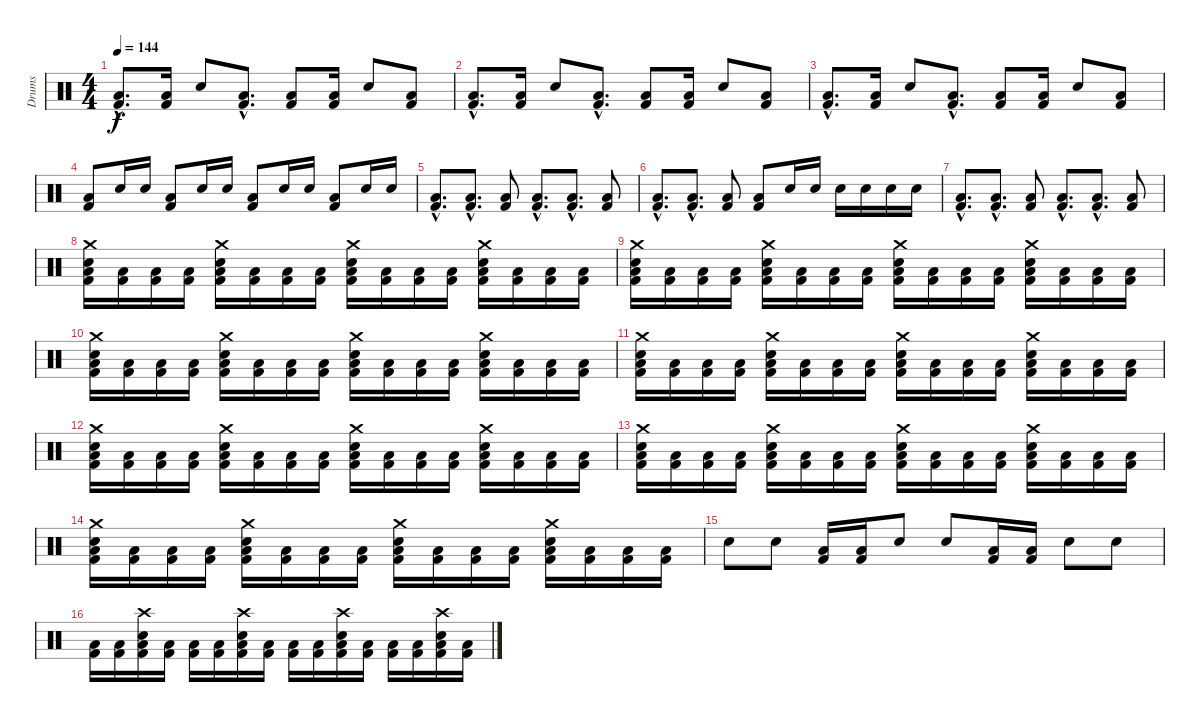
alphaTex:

\track ("Drums" "Drums") {instrument percussion}
\staff {score}
\articulation defaults
\ts (4 4)
\tempo 144
\clef neutral
\ks c
("Low Floor Tom (hit)"{hac} "Kick (hit) 2"{hac}).8{d dy f} ("Low Floor Tom (hit)" "Kick (hit) 2").16 "Snare (hit) 2".8 ("Low Floor Tom (hit)"{hac} "Kick (hit) 2"{hac}).8{d} ("Low Floor Tom (hit)" "Kick (hit) 2").8 ("Low Floor Tom (hit)" "Kick (hit) 2").16 "Snare (hit) 2".8 ("Low Floor Tom (hit)" "Kick (hit) 2").8 |
("Low Floor Tom (hit)"{hac} "Kick (hit) 2"{hac}).8{d} ("Low Floor Tom (hit)" "Kick (hit) 2").16 "Snare (hit) 2".8 ("Low Floor Tom (hit)"{hac} "Kick (hit) 2"{hac}).8{d} ("Low Floor Tom (hit)" "Kick (hit) 2").8 ("Low Floor Tom (hit)" "Kick (hit) 2").16 "Snare (hit) 2".8 ("Low Floor Tom (hit)" "Kick (hit) 2").8 |
("Low Floor Tom (hit)"{hac} "Kick (hit) 2"{hac}).8{d} ("Low Floor Tom (hit)" "Kick (hit) 2").16 "Snare (hit) 2".8 ("Low Floor Tom (hit)"{hac} "Kick (hit) 2"{hac}).8{d} ("Low Floor Tom (hit)" "Kick (hit) 2").8 ("Low Floor Tom (hit)" "Kick (hit) 2").16 "Snare (hit) 2".8 ("Low Floor Tom (hit)" "Kick (hit) 2").8 |
("Low Floor Tom (hit)" "Kick (hit) 2").8 "Snare (hit) 2".16 "Snare (hit) 2".16 ("Low Floor Tom (hit)" "Kick (hit) 2").8 "Snare (hit) 2".16 "Snare (hit) 2".16 ("Low Floor Tom (hit)" "Kick (hit) 2").8 "Snare (hit) 2".16 "Snare (hit) 2".16 ("Low Floor Tom (hit)" "Kick (hit) 2").8 "Snare (hit) 2".16 "Snare (hit) 2".16 |
("Low Floor Tom (hit)"{hac} "Kick (hit) 2"{hac}).8{d} ("Low Floor Tom (hit)"{hac} "Kick (hit) 2"{hac}).8{d} ("Low Floor Tom (hit)" "Kick (hit) 2").8 ("Low Floor Tom (hit)"{hac} "Kick (hit) 2"{hac}).8{d} ("Low Floor Tom (hit)"{hac} "Kick (hit) 2"{hac}).8{d} ("Low Floor Tom (hit)" "Kick (hit) 2").8 |
("Low Floor Tom (hit)"{hac} "Kick (hit) 2"{hac}).8{d} ("Low Floor Tom (hit)"{hac} "Kick (hit) 2"{hac}).8{d} ("Low Floor Tom (hit)" "Kick (hit) 2").8 ("Low Floor Tom (hit)" "Kick (hit) 2").8 "Snare (hit) 2".16 "Snare (hit) 2".16 "Snare (hit) 2".16 "Snare (hit) 2".16 "Snare (hit) 2".16 "Snare (hit) 2".16 |
("Low Floor Tom (hit)"{hac} "Kick (hit) 2"{hac}).8{d} ("Low Floor Tom (hit)"{hac} "Kick (hit) 2"{hac}).8{d} ("Low Floor Tom (hit)" "Kick (hit) 2").8 ("Low Floor Tom (hit)"{hac} "Kick (hit) 2"{hac}).8{d} ("Low Floor Tom (hit)"{hac} "Kick (hit) 2"{hac}).8{d} ("Low Floor Tom (hit)" "Kick (hit) 2").8 |
("Snare (hit) 2" "Crash medium (hit)" "Low Floor Tom (hit)" "Kick (hit) 2").16 ("Low Floor Tom (hit)" "Kick (hit) 2").16 ("Low Floor Tom (hit)" "Kick (hit) 2").16 ("Low Floor Tom (hit)" "Kick (hit) 2").16 ("Snare (hit) 2" "Crash medium (hit)" "Low Floor Tom (hit)" "Kick (hit) 2").16 ("Low Floor Tom (hit)" "Kick (hit) 2").16 ("Low Floor Tom (hit)" "Kick (hit) 2").16 ("Low Floor Tom (hit)" "Kick (hit) 2").16 ("Snare (hit) 2" "Crash medium (hit)" "Low Floor Tom (hit)" "Kick (hit) 2").16 ("Low Floor Tom (hit)" "Kick (hit) 2").16 ("Low Floor Tom (hit)" "Kick (hit) 2").16 ("Low Floor Tom (hit)" "Kick (hit) 2").16 ("Snare (hit) 2" "Crash medium (hit)" "Low Floor Tom (hit)" "Kick (hit) 2").16 ("Low Floor Tom (hit)" "Kick (hit) 2").16 ("Low Floor Tom (hit)" "Kick (hit) 2").16 ("Low Floor Tom (hit)" "Kick (hit) 2").16 |
("Snare (hit) 2" "Crash medium (hit)" "Low Floor Tom (hit)" "Kick (hit) 2").16 ("Low Floor Tom (hit)" "Kick (hit) 2").16 ("Low Floor Tom (hit)" "Kick (hit) 2").16 ("Low Floor Tom (hit)" "Kick (hit) 2").16 ("Snare (hit) 2" "Crash medium (hit)" "Low Floor Tom (hit)" "Kick (hit) 2").16 ("Low Floor Tom (hit)" "Kick (hit) 2").16 ("Low Floor Tom (hit)" "Kick (hit) 2").16 ("Low Floor Tom (hit)" "Kick (hit) 2").16 ("Snare (hit) 2" "Crash medium (hit)" "Low Floor Tom (hit)" "Kick (hit) 2").16 ("Low Floor Tom (hit)" "Kick (hit) 2").16 ("Low Floor Tom (hit)" "Kick (hit) 2").16 ("Low Floor Tom (hit)" "Kick (hit) 2").16 ("Snare (hit) 2" "Crash medium (hit)" "Low Floor Tom (hit)" "Kick (hit) 2").16 ("Low Floor Tom (hit)" "Kick (hit) 2").16 ("Low Floor Tom (hit)" "Kick (hit) 2").16 ("Low Floor Tom (hit)" "Kick (hit) 2").16 |
("Snare (hit) 2" "Crash medium (hit)" "Low Floor Tom (hit)" "Kick (hit) 2").16 ("Low Floor Tom (hit)" "Kick (hit) 2").16 ("Low Floor Tom (hit)" "Kick (hit) 2").16 ("Low Floor Tom (hit)" "Kick (hit) 2").16 ("Snare (hit) 2" "Crash medium (hit)" "Low Floor Tom (hit)" "Kick (hit) 2").16 ("Low Floor Tom (hit)" "Kick (hit) 2").16 ("Low Floor Tom (hit)" "Kick (hit) 2").16 ("Low Floor Tom (hit)" "Kick (hit) 2").16 ("Snare (hit) 2" "Crash medium (hit)" "Low Floor Tom (hit)" "Kick (hit) 2").16 ("Low Floor Tom (hit)" "Kick (hit) 2").16 ("Low Floor Tom (hit)" "Kick (hit) 2").16 ("Low Floor Tom (hit)" "Kick (hit) 2").16 ("Snare (hit) 2" "Crash medium (hit)" "Low Floor Tom (hit)" "Kick (hit) 2").16 ("Low Floor Tom (hit)" "Kick (hit) 2").16 ("Low Floor Tom (hit)" "Kick (hit) 2").16 ("Low Floor Tom (hit)" "Kick (hit) 2").16 |
("Snare (hit) 2" "Crash medium (hit)" "Low Floor Tom (hit)" "Kick (hit) 2").16 ("Low Floor Tom (hit)" "Kick (hit) 2").16 ("Low Floor Tom (hit)" "Kick (hit) 2").16 ("Low Floor Tom (hit)" "Kick (hit) 2").16 ("Snare (hit) 2" "Crash medium (hit)" "Low Floor Tom (hit)" "Kick (hit) 2").16 ("Low Floor Tom (hit)" "Kick (hit) 2").16 ("Low Floor Tom (hit)" "Kick (hit) 2").16 ("Low Floor Tom (hit)" "Kick (hit) 2").16 ("Snare (hit) 2" "Crash medium (hit)" "Low Floor Tom (hit)" "Kick (hit) 2").16 ("Low Floor Tom (hit)" "Kick (hit) 2").16 ("Low Floor Tom (hit)" "Kick (hit) 2").16 ("Low Floor Tom (hit)" "Kick (hit) 2").16 ("Snare (hit) 2" "Crash medium (hit)" "Low Floor Tom (hit)" "Kick (hit) 2").16 ("Low Floor Tom (hit)" "Kick (hit) 2").16 ("Low Floor Tom (hit)" "Kick (hit) 2").16 ("Low Floor Tom (hit)" "Kick (hit) 2").16 |
("Snare (hit) 2" "Crash medium (hit)" "Low Floor Tom (hit)" "Kick (hit) 2").16 ("Low Floor Tom (hit)" "Kick (hit) 2").16 ("Low Floor Tom (hit)" "Kick (hit) 2").16 ("Low Floor Tom (hit)" "Kick (hit) 2").16 ("Snare (hit) 2" "Crash medium (hit)" "Low Floor Tom (hit)" "Kick (hit) 2").16 ("Low Floor Tom (hit)" "Kick (hit) 2").16 ("Low Floor Tom (hit)" "Kick (hit) 2").16 ("Low Floor Tom (hit)" "Kick (hit) 2").16 ("Snare (hit) 2" "Crash medium (hit)" "Low Floor Tom (hit)" "Kick (hit) 2").16 ("Low Floor Tom (hit)" "Kick (hit) 2").16 ("Low Floor Tom (hit)" "Kick (hit) 2").16 ("Low Floor Tom (hit)" "Kick (hit) 2").16 ("Snare (hit) 2" "Crash medium (hit)" "Low Floor Tom (hit)" "Kick (hit) 2").16 ("Low Floor Tom (hit)" "Kick (hit) 2").16 ("Low Floor Tom (hit)" "Kick (hit) 2").16 ("Low Floor Tom (hit)" "Kick (hit) 2").16 |
("Snare (hit) 2" "Crash medium (hit)" "Low Floor Tom (hit)" "Kick (hit) 2").16 ("Low Floor Tom (hit)" "Kick (hit) 2").16 ("Low Floor Tom (hit)" "Kick (hit) 2").16 ("Low Floor Tom (hit)" "Kick (hit) 2").16 ("Snare (hit) 2" "Crash medium (hit)" "Low Floor Tom (hit)" "Kick (hit) 2").16 ("Low Floor Tom (hit)" "Kick (hit) 2").16 ("Low Floor Tom (hit)" "Kick (hit) 2").16 ("Low Floor Tom (hit)" "Kick (hit) 2").16 ("Snare (hit) 2" "Crash medium (hit)" "Low Floor Tom (hit)" "Kick (hit) 2").16 ("Low Floor Tom (hit)" "Kick (hit) 2").16 ("Low Floor Tom (hit)" "Kick (hit) 2").16 ("Low Floor Tom (hit)" "Kick (hit) 2").16 ("Snare (hit) 2" "Crash medium (hit)" "Low Floor Tom (hit)" "Kick (hit) 2").16 ("Low Floor Tom (hit)" "Kick (hit) 2").16 ("Low Floor Tom (hit)" "Kick (hit) 2").16 ("Low Floor Tom (hit)" "Kick (hit) 2").16 |
("Snare (hit) 2" "Crash medium (hit)" "Low Floor Tom (hit)" "Kick (hit) 2").16 ("Low Floor Tom (hit)" "Kick (hit) 2").16 ("Low Floor Tom (hit)" "Kick (hit) 2").16 ("Low Floor Tom (hit)" "Kick (hit) 2").16 ("Snare (hit) 2" "Crash medium (hit)" "Low Floor Tom (hit)" "Kick (hit) 2").16 ("Low Floor Tom (hit)" "Kick (hit) 2").16 ("Low Floor Tom (hit)" "Kick (hit) 2").16 ("Low Floor Tom (hit)" "Kick (hit) 2").16 ("Snare (hit) 2" "Crash medium (hit)" "Low Floor Tom (hit)" "Kick (hit) 2").16 ("Low Floor Tom (hit)" "Kick (hit) 2").16 ("Low Floor Tom (hit)" "Kick (hit) 2").16 ("Low Floor Tom (hit)" "Kick (hit) 2").16 ("Snare (hit) 2" "Crash medium (hit)" "Low Floor Tom (hit)" "Kick (hit) 2").16 ("Low Floor Tom (hit)" "Kick (hit) 2").16 ("Low Floor Tom (hit)" "Kick (hit) 2").16 ("Low Floor Tom (hit)" "Kick (hit) 2").16 |
"Snare (hit) 2".8 "Snare (hit) 2".8 ("Low Floor Tom (hit)" "Kick (hit) 2").16 ("Low Floor Tom (hit)" "Kick (hit) 2").16 "Snare (hit) 2".8 "Snare (hit) 2".8 ("Low Floor Tom (hit)" "Kick (hit) 2").16 ("Low Floor Tom (hit)" "Kick (hit) 2").16 "Snare (hit) 2".8 "Snare (hit) 2".8 |
("Low Floor Tom (hit)" "Kick (hit) 2").16 ("Low Floor Tom (hit)" "Kick (hit) 2").16 ("Snare (hit) 2" "Crash high (hit)" "Low Floor Tom (hit)" "Kick (hit) 2").16 ("Low Floor Tom (hit)" "Kick (hit) 2").16 ("Low Floor Tom (hit)" "Kick (hit) 2").16 ("Low Floor Tom (hit)" "Kick (hit) 2").16 ("Snare (hit) 2" "Crash high (hit)" "Low Floor Tom (hit)" "Kick (hit) 2").16 ("Low Floor Tom (hit)" "Kick (hit) 2").16 ("Low Floor Tom (hit)" "Kick (hit) 2").16 ("Low Floor Tom (hit)" "Kick (hit) 2").16 ("Snare (hit) 2" "Crash high (hit)" "Low Floor Tom (hit)" "Kick (hit) 2").16 ("Low Floor Tom (hit)" "Kick (hit) 2").16 ("Low Floor Tom (hit)" "Kick (hit) 2").16 ("Low Floor Tom (hit)" "Kick (hit) 2").16 ("Snare (hit) 2" "Crash high (hit)" "Low Floor Tom (hit)" "Kick (hit) 2").16 ("Low Floor Tom (hit)" "Kick (hit) 2").16
